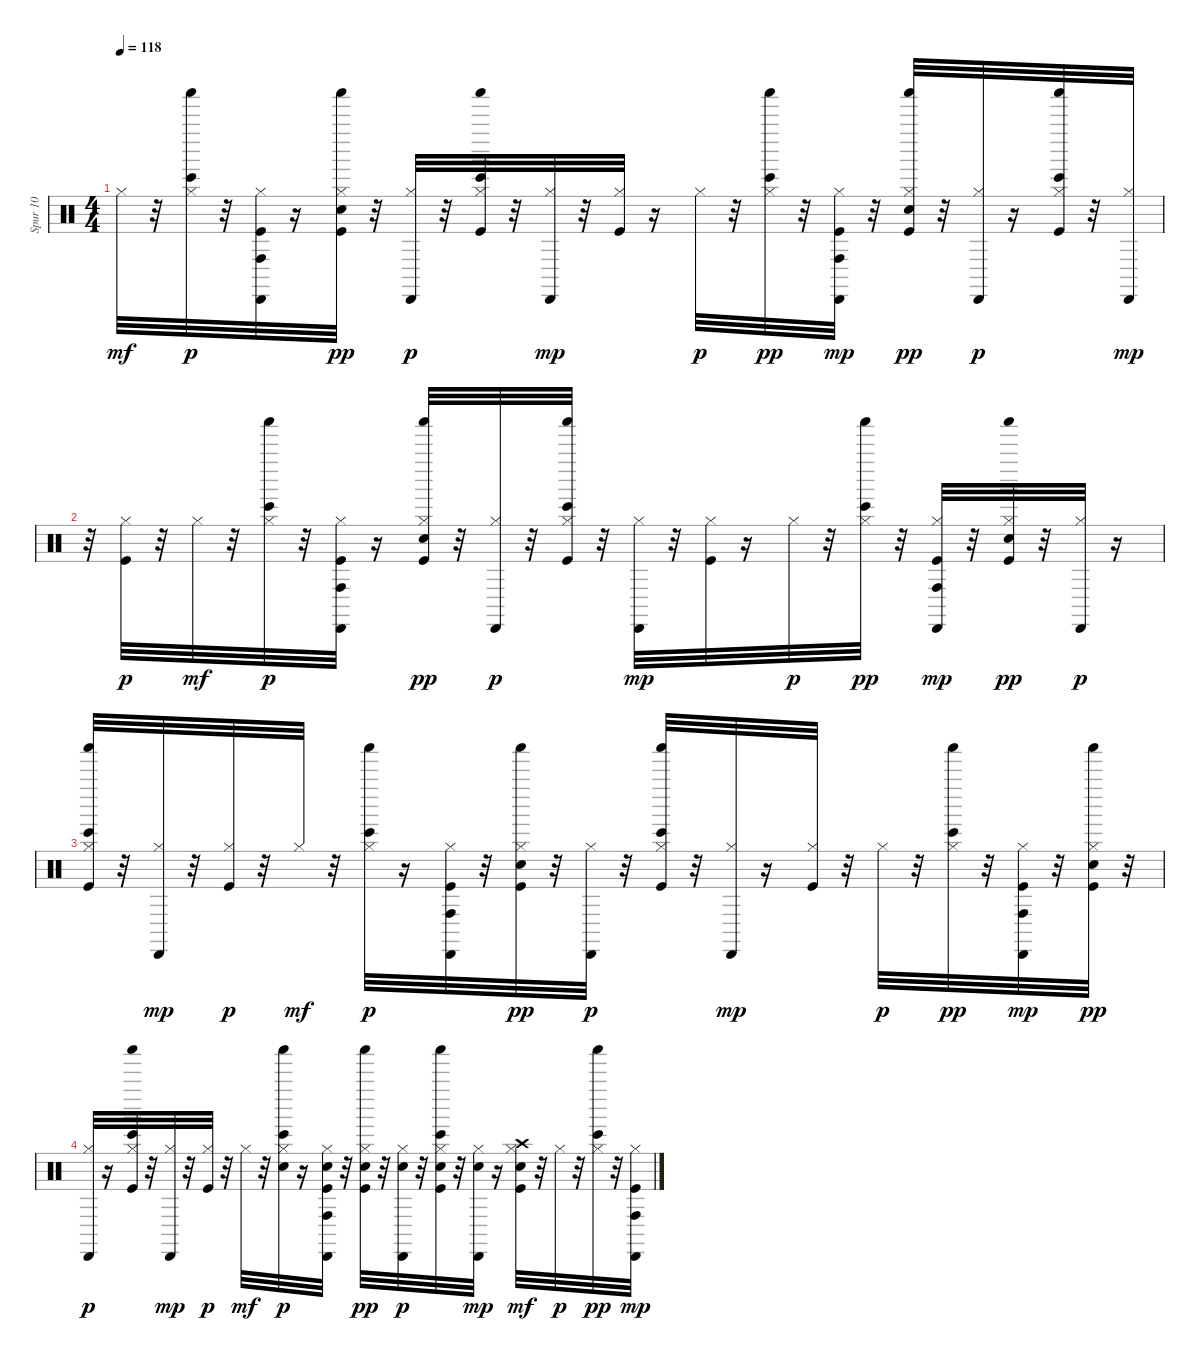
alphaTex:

\track ("Spur 10" "Spur 10") {instrument percussion}
\staff {score}
\articulation defaults
\ts (4 4)
\tempo 118
\clef neutral
\ks c "Hi-Hat (closed)".32{dy mf}
r.32 ("Hi-Hat (closed)" "Bongo High (hit)" "Shaker (hit)").32{dy p} r.32 ("Kick (hit)" "Hi-Hat (closed)" "Conga high (hit)" "Cabasa (hit)").32 r.16 ("Kick (hit)" "Snare (hit) 2" "Hi-Hat (closed)" "Shaker (hit)").32{dy pp} r.32 ("Hi-Hat (closed)" "Cabasa (hit)").32{dy p} r.32 ("Kick (hit)" "Hi-Hat (closed)" "Bongo High (hit)" "Shaker (hit)").32 r.32 ("Hi-Hat (closed)" "Cabasa (hit)").32{dy mp} r.32 ("Kick (hit)" "Hi-Hat (closed)").32 r.16 "Hi-Hat (closed)".32{dy p} r.32 ("Hi-Hat (closed)" "Bongo High (hit)" "Shaker (hit)").32{dy pp} r.32 ("Kick (hit)" "Hi-Hat (closed)" "Conga high (hit)" "Cabasa (hit)").32{dy mp} r.32 ("Kick (hit)" "Snare (hit) 2" "Hi-Hat (closed)" "Shaker (hit)").32{dy pp} r.32 ("Hi-Hat (closed)" "Cabasa (hit)").32{dy p} r.16 ("Kick (hit)" "Hi-Hat (closed)" "Bongo High (hit)" "Shaker (hit)").32 r.32 ("Hi-Hat (closed)" "Cabasa (hit)").32{dy mp} |
r.32 ("Kick (hit)" "Hi-Hat (closed)").32{dy p} r.32 "Hi-Hat (closed)".32{dy mf} r.32 ("Hi-Hat (closed)" "Bongo High (hit)" "Shaker (hit)").32{dy p} r.32 ("Kick (hit)" "Hi-Hat (closed)" "Conga high (hit)" "Cabasa (hit)").32 r.16 ("Kick (hit)" "Snare (hit) 2" "Hi-Hat (closed)" "Shaker (hit)").32{dy pp} r.32 ("Hi-Hat (closed)" "Cabasa (hit)").32{dy p} r.32 ("Kick (hit)" "Hi-Hat (closed)" "Bongo High (hit)" "Shaker (hit)").32 r.32 ("Hi-Hat (closed)" "Cabasa (hit)").32{dy mp} r.32 ("Kick (hit)" "Hi-Hat (closed)").32 r.16 "Hi-Hat (closed)".32{dy p} r.32 ("Hi-Hat (closed)" "Bongo High (hit)" "Shaker (hit)").32{dy pp} r.32 ("Kick (hit)" "Hi-Hat (closed)" "Conga high (hit)" "Cabasa (hit)").32{dy mp} r.32 ("Kick (hit)" "Snare (hit) 2" "Hi-Hat (closed)" "Shaker (hit)").32{dy pp} r.32 ("Hi-Hat (closed)" "Cabasa (hit)").32{dy p volume 13} r.16 |
("Kick (hit)" "Hi-Hat (closed)" "Bongo High (hit)" "Shaker (hit)").32 r.32 ("Hi-Hat (closed)" "Cabasa (hit)").32{dy mp} r.32 ("Kick (hit)" "Hi-Hat (closed)").32{dy p} r.32 "Hi-Hat (closed)".32{dy mf volume 12} r.32 ("Hi-Hat (closed)" "Bongo High (hit)" "Shaker (hit)").32{dy p} r.16 ("Kick (hit)" "Hi-Hat (closed)" "Conga high (hit)" "Cabasa (hit)").32 r.32 ("Kick (hit)" "Snare (hit) 2" "Hi-Hat (closed)" "Shaker (hit)").32{dy pp volume 11} r.32 ("Hi-Hat (closed)" "Cabasa (hit)").32{dy p} r.32 ("Kick (hit)" "Hi-Hat (closed)" "Bongo High (hit)" "Shaker (hit)").32{volume 10} r.32 ("Hi-Hat (closed)" "Cabasa (hit)").32{dy mp} r.16 ("Kick (hit)" "Hi-Hat (closed)").32 r.32 "Hi-Hat (closed)".32{dy p volume 9} r.32 ("Hi-Hat (closed)" "Bongo High (hit)" "Shaker (hit)").32{dy pp} r.32 ("Kick (hit)" "Hi-Hat (closed)" "Conga high (hit)" "Cabasa (hit)").32{dy mp} r.32 ("Kick (hit)" "Snare (hit) 2" "Hi-Hat (closed)" "Shaker (hit)").32{dy pp volume 8} r.32 |
("Hi-Hat (closed)" "Cabasa (hit)").32{dy p} r.16 ("Kick (hit)" "Hi-Hat (closed)" "Bongo High (hit)" "Shaker (hit)").32 r.32 ("Hi-Hat (closed)" "Cabasa (hit)").32{dy mp} r.32 ("Kick (hit)" "Hi-Hat (closed)").32{dy p volume 8} r.32 "Hi-Hat (closed)".32{dy mf} r.32 ("Snare (hit) 2" "Hi-Hat (closed)" "Bongo High (hit)" "Shaker (hit)").32{dy p volume 7} r.16 ("Kick (hit)" "Snare (hit) 2" "Hi-Hat (closed)" "Conga high (hit)" "Cabasa (hit)").32 r.32 ("Kick (hit)" "Snare (hit) 2" "Hi-Hat (closed)" "Shaker (hit)").32{dy pp} r.32 ("Snare (hit) 2" "Hi-Hat (closed)" "Cabasa (hit)").32{dy p volume 6} r.32 ("Kick (hit)" "Snare (hit) 2" "Hi-Hat (closed)" "Bongo High (hit)" "Shaker (hit)").32 r.32 ("Snare (hit) 2" "Hi-Hat (closed)" "Cabasa (hit)").32{dy mp} r.16 ("Kick (hit)" "Snare (hit) 2" "Hi-Hat (closed)" "Crash high (hit)").32{dy mf volume 5} r.32 "Hi-Hat (closed)".32{dy p} r.32 ("Hi-Hat (closed)" "Bongo High (hit)" "Shaker (hit)").32{dy pp} r.32 ("Kick (hit)" "Hi-Hat (closed)" "Conga high (hit)" "Cabasa (hit)").32{dy mp volume 4}
